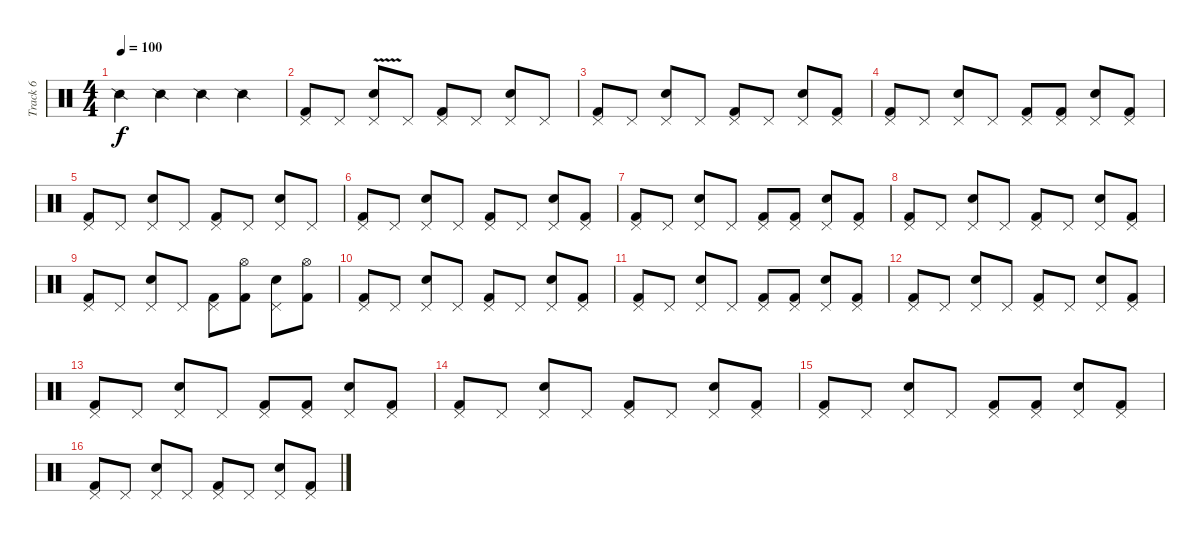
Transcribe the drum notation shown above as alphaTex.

\track ("Track 6" "Track 6") {instrument percussion}
\staff {score}
\articulation defaults
\ts (4 4)
\tempo 100
\clef neutral
\ks c "Snare (side stick) 2".4{dy f} "Snare (side stick) 2".4 "Snare (side stick) 2".4 "Snare (side stick) 2".4
|
("Pedal Hi-Hat (hit)" "Kick (hit) 2").8 "Pedal Hi-Hat (hit)".8 ("Pedal Hi-Hat (hit)" "Electric Snare (hit)"{v}).8 "Pedal Hi-Hat (hit)".8 ("Pedal Hi-Hat (hit)" "Kick (hit) 2").8 "Pedal Hi-Hat (hit)".8 ("Pedal Hi-Hat (hit)" "Electric Snare (hit)").8 "Pedal Hi-Hat (hit)".8 |
("Pedal Hi-Hat (hit)" "Kick (hit) 2").8 "Pedal Hi-Hat (hit)".8 ("Pedal Hi-Hat (hit)" "Electric Snare (hit)").8 "Pedal Hi-Hat (hit)".8 ("Pedal Hi-Hat (hit)" "Kick (hit) 2").8 "Pedal Hi-Hat (hit)".8 ("Pedal Hi-Hat (hit)" "Electric Snare (hit)").8 ("Pedal Hi-Hat (hit)" "Kick (hit) 2").8 |
("Pedal Hi-Hat (hit)" "Kick (hit) 2").8 "Pedal Hi-Hat (hit)".8 ("Pedal Hi-Hat (hit)" "Electric Snare (hit)").8 "Pedal Hi-Hat (hit)".8 ("Pedal Hi-Hat (hit)" "Kick (hit) 2").8 ("Pedal Hi-Hat (hit)" "Kick (hit) 2").8 ("Pedal Hi-Hat (hit)" "Electric Snare (hit)").8 ("Pedal Hi-Hat (hit)" "Kick (hit) 2").8 |
("Pedal Hi-Hat (hit)" "Kick (hit) 2").8 "Pedal Hi-Hat (hit)".8 ("Pedal Hi-Hat (hit)" "Electric Snare (hit)").8 "Pedal Hi-Hat (hit)".8 ("Pedal Hi-Hat (hit)" "Kick (hit) 2").8 "Pedal Hi-Hat (hit)".8 ("Pedal Hi-Hat (hit)" "Electric Snare (hit)").8 "Pedal Hi-Hat (hit)".8 |
("Pedal Hi-Hat (hit)" "Kick (hit) 2").8 "Pedal Hi-Hat (hit)".8 ("Pedal Hi-Hat (hit)" "Electric Snare (hit)").8 "Pedal Hi-Hat (hit)".8 ("Pedal Hi-Hat (hit)" "Kick (hit) 2").8 "Pedal Hi-Hat (hit)".8 ("Pedal Hi-Hat (hit)" "Electric Snare (hit)").8 ("Pedal Hi-Hat (hit)" "Kick (hit) 2").8 |
("Pedal Hi-Hat (hit)" "Kick (hit) 2").8 "Pedal Hi-Hat (hit)".8 ("Pedal Hi-Hat (hit)" "Electric Snare (hit)").8 "Pedal Hi-Hat (hit)".8 ("Pedal Hi-Hat (hit)" "Kick (hit) 2").8 ("Pedal Hi-Hat (hit)" "Kick (hit) 2").8 ("Pedal Hi-Hat (hit)" "Electric Snare (hit)").8 ("Pedal Hi-Hat (hit)" "Kick (hit) 2").8 |
("Pedal Hi-Hat (hit)" "Kick (hit) 2").8 "Pedal Hi-Hat (hit)".8 ("Pedal Hi-Hat (hit)" "Electric Snare (hit)").8 "Pedal Hi-Hat (hit)".8 ("Pedal Hi-Hat (hit)" "Kick (hit) 2").8 "Pedal Hi-Hat (hit)".8 ("Pedal Hi-Hat (hit)" "Electric Snare (hit)").8 ("Pedal Hi-Hat (hit)" "Kick (hit) 2").8 |
("Pedal Hi-Hat (hit)" "Kick (hit) 2").8 "Pedal Hi-Hat (hit)".8 ("Pedal Hi-Hat (hit)" "Electric Snare (hit)").8 "Pedal Hi-Hat (hit)".8 ("Pedal Hi-Hat (hit)" "Kick (hit) 2").8 ("Hi-Hat (open)" "Kick (hit) 2").8 ("Pedal Hi-Hat (hit)" "Electric Snare (hit)").8 ("Hi-Hat (open)" "Kick (hit) 2").8 |
("Pedal Hi-Hat (hit)" "Kick (hit) 2").8 "Pedal Hi-Hat (hit)".8 ("Pedal Hi-Hat (hit)" "Electric Snare (hit)").8 "Pedal Hi-Hat (hit)".8 ("Pedal Hi-Hat (hit)" "Kick (hit) 2").8 "Pedal Hi-Hat (hit)".8 ("Pedal Hi-Hat (hit)" "Electric Snare (hit)").8 ("Pedal Hi-Hat (hit)" "Kick (hit) 2").8 |
("Pedal Hi-Hat (hit)" "Kick (hit) 2").8 "Pedal Hi-Hat (hit)".8 ("Pedal Hi-Hat (hit)" "Electric Snare (hit)").8 "Pedal Hi-Hat (hit)".8 ("Pedal Hi-Hat (hit)" "Kick (hit) 2").8 ("Pedal Hi-Hat (hit)" "Kick (hit) 2").8 ("Pedal Hi-Hat (hit)" "Electric Snare (hit)").8 ("Pedal Hi-Hat (hit)" "Kick (hit) 2").8 |
("Pedal Hi-Hat (hit)" "Kick (hit) 2").8 "Pedal Hi-Hat (hit)".8 ("Pedal Hi-Hat (hit)" "Electric Snare (hit)").8 "Pedal Hi-Hat (hit)".8 ("Pedal Hi-Hat (hit)" "Kick (hit) 2").8 "Pedal Hi-Hat (hit)".8 ("Pedal Hi-Hat (hit)" "Electric Snare (hit)").8 ("Pedal Hi-Hat (hit)" "Kick (hit) 2").8 |
("Pedal Hi-Hat (hit)" "Kick (hit) 2").8 "Pedal Hi-Hat (hit)".8 ("Pedal Hi-Hat (hit)" "Electric Snare (hit)").8 "Pedal Hi-Hat (hit)".8 ("Pedal Hi-Hat (hit)" "Kick (hit) 2").8 ("Pedal Hi-Hat (hit)" "Kick (hit) 2").8 ("Pedal Hi-Hat (hit)" "Electric Snare (hit)").8 ("Pedal Hi-Hat (hit)" "Kick (hit) 2").8 |
("Pedal Hi-Hat (hit)" "Kick (hit) 2").8 "Pedal Hi-Hat (hit)".8 ("Pedal Hi-Hat (hit)" "Electric Snare (hit)").8 "Pedal Hi-Hat (hit)".8 ("Pedal Hi-Hat (hit)" "Kick (hit) 2").8 "Pedal Hi-Hat (hit)".8 ("Pedal Hi-Hat (hit)" "Electric Snare (hit)").8 ("Pedal Hi-Hat (hit)" "Kick (hit) 2").8 |
("Pedal Hi-Hat (hit)" "Kick (hit) 2").8 "Pedal Hi-Hat (hit)".8 ("Pedal Hi-Hat (hit)" "Electric Snare (hit)").8 "Pedal Hi-Hat (hit)".8 ("Pedal Hi-Hat (hit)" "Kick (hit) 2").8 ("Pedal Hi-Hat (hit)" "Kick (hit) 2").8 ("Pedal Hi-Hat (hit)" "Electric Snare (hit)").8 ("Pedal Hi-Hat (hit)" "Kick (hit) 2").8 |
("Pedal Hi-Hat (hit)" "Kick (hit) 2").8 "Pedal Hi-Hat (hit)".8 ("Pedal Hi-Hat (hit)" "Electric Snare (hit)").8 "Pedal Hi-Hat (hit)".8 ("Pedal Hi-Hat (hit)" "Kick (hit) 2").8 "Pedal Hi-Hat (hit)".8 ("Pedal Hi-Hat (hit)" "Electric Snare (hit)").8 ("Pedal Hi-Hat (hit)" "Kick (hit) 2").8
